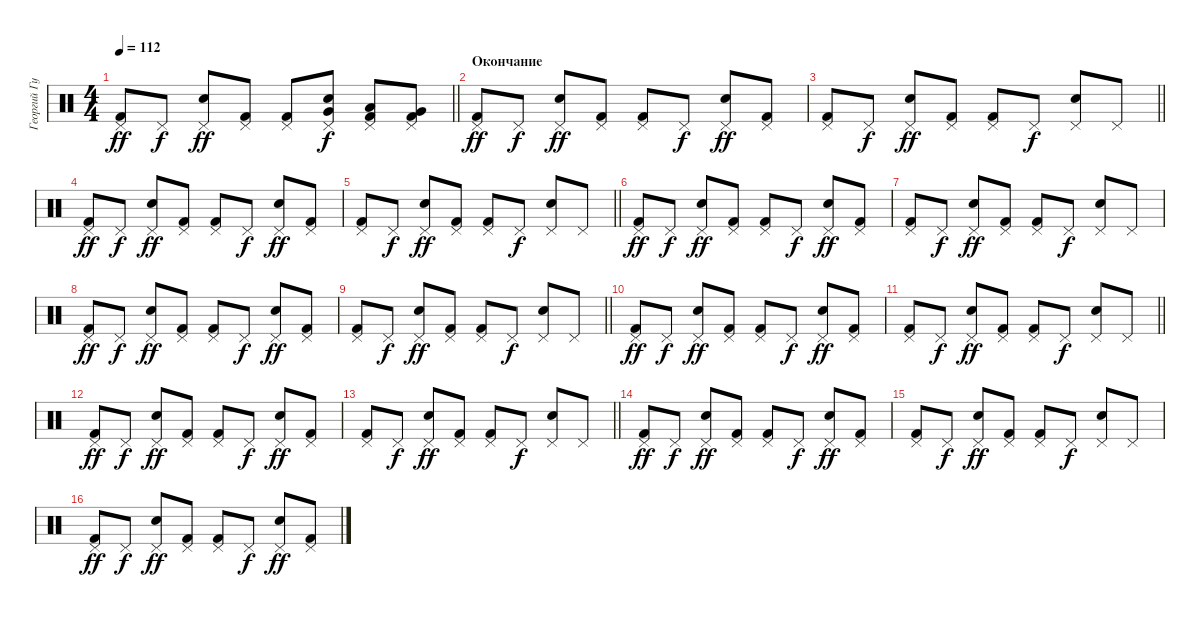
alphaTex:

\track ("Георгий Гурьянов" "Георгий Гу") {instrument percussion}
\staff {score}
\articulation defaults
\ts (4 4)
\tempo 112
\clef neutral
\barLineRight lightlight
\ks c
("Pedal Hi-Hat (hit)" "Kick (hit) 2").8{dy ff} "Pedal Hi-Hat (hit)".8{dy f} ("Pedal Hi-Hat (hit)" "Electric Snare (hit)").8{dy ff} ("Pedal Hi-Hat (hit)" "Kick (hit) 2").8 ("Pedal Hi-Hat (hit)" "Kick (hit) 2").8 ("Pedal Hi-Hat (hit)" "Electric Snare (hit)" "Very Low Tom (hit)").8{dy f} ("Pedal Hi-Hat (hit)" "Kick (hit) 2" "Low Floor Tom (hit)").8 ("Pedal Hi-Hat (hit)" "Kick (hit) 2" "Very Low Tom (hit)").8 |
\section ("" "Окончание")
("Pedal Hi-Hat (hit)" "Kick (hit) 2").8{dy ff} "Pedal Hi-Hat (hit)".8{dy f} ("Pedal Hi-Hat (hit)" "Electric Snare (hit)").8{dy ff} ("Pedal Hi-Hat (hit)" "Kick (hit) 2").8 ("Pedal Hi-Hat (hit)" "Kick (hit) 2").8 "Pedal Hi-Hat (hit)".8{dy f} ("Pedal Hi-Hat (hit)" "Electric Snare (hit)").8{dy ff} ("Pedal Hi-Hat (hit)" "Kick (hit) 2").8 |
\barLineRight lightlight
("Pedal Hi-Hat (hit)" "Kick (hit) 2").8 "Pedal Hi-Hat (hit)".8{dy f} ("Pedal Hi-Hat (hit)" "Electric Snare (hit)").8{dy ff} ("Pedal Hi-Hat (hit)" "Kick (hit) 2").8 ("Pedal Hi-Hat (hit)" "Kick (hit) 2").8 "Pedal Hi-Hat (hit)".8{dy f} ("Pedal Hi-Hat (hit)" "Electric Snare (hit)").8 "Pedal Hi-Hat (hit)".8 |
("Pedal Hi-Hat (hit)" "Kick (hit) 2").8{dy ff} "Pedal Hi-Hat (hit)".8{dy f} ("Pedal Hi-Hat (hit)" "Electric Snare (hit)").8{dy ff} ("Pedal Hi-Hat (hit)" "Kick (hit) 2").8 ("Pedal Hi-Hat (hit)" "Kick (hit) 2").8 "Pedal Hi-Hat (hit)".8{dy f} ("Pedal Hi-Hat (hit)" "Electric Snare (hit)").8{dy ff} ("Pedal Hi-Hat (hit)" "Kick (hit) 2").8 |
\barLineRight lightlight
("Pedal Hi-Hat (hit)" "Kick (hit) 2").8 "Pedal Hi-Hat (hit)".8{dy f} ("Pedal Hi-Hat (hit)" "Electric Snare (hit)").8{dy ff} ("Pedal Hi-Hat (hit)" "Kick (hit) 2").8 ("Pedal Hi-Hat (hit)" "Kick (hit) 2").8 "Pedal Hi-Hat (hit)".8{dy f} ("Pedal Hi-Hat (hit)" "Electric Snare (hit)").8 "Pedal Hi-Hat (hit)".8 |
("Pedal Hi-Hat (hit)" "Kick (hit) 2").8{dy ff} "Pedal Hi-Hat (hit)".8{dy f} ("Pedal Hi-Hat (hit)" "Electric Snare (hit)").8{dy ff} ("Pedal Hi-Hat (hit)" "Kick (hit) 2").8 ("Pedal Hi-Hat (hit)" "Kick (hit) 2").8 "Pedal Hi-Hat (hit)".8{dy f} ("Pedal Hi-Hat (hit)" "Electric Snare (hit)").8{dy ff} ("Pedal Hi-Hat (hit)" "Kick (hit) 2").8 |
("Pedal Hi-Hat (hit)" "Kick (hit) 2").8 "Pedal Hi-Hat (hit)".8{dy f} ("Pedal Hi-Hat (hit)" "Electric Snare (hit)").8{dy ff} ("Pedal Hi-Hat (hit)" "Kick (hit) 2").8 ("Pedal Hi-Hat (hit)" "Kick (hit) 2").8 "Pedal Hi-Hat (hit)".8{dy f} ("Pedal Hi-Hat (hit)" "Electric Snare (hit)").8 "Pedal Hi-Hat (hit)".8 |
("Pedal Hi-Hat (hit)" "Kick (hit) 2").8{dy ff} "Pedal Hi-Hat (hit)".8{dy f} ("Pedal Hi-Hat (hit)" "Electric Snare (hit)").8{dy ff} ("Pedal Hi-Hat (hit)" "Kick (hit) 2").8 ("Pedal Hi-Hat (hit)" "Kick (hit) 2").8 "Pedal Hi-Hat (hit)".8{dy f} ("Pedal Hi-Hat (hit)" "Electric Snare (hit)").8{dy ff} ("Pedal Hi-Hat (hit)" "Kick (hit) 2").8 |
\barLineRight lightlight
("Pedal Hi-Hat (hit)" "Kick (hit) 2").8 "Pedal Hi-Hat (hit)".8{dy f} ("Pedal Hi-Hat (hit)" "Electric Snare (hit)").8{dy ff} ("Pedal Hi-Hat (hit)" "Kick (hit) 2").8 ("Pedal Hi-Hat (hit)" "Kick (hit) 2").8 "Pedal Hi-Hat (hit)".8{dy f} ("Pedal Hi-Hat (hit)" "Electric Snare (hit)").8 "Pedal Hi-Hat (hit)".8 |
\section ("" "")
("Pedal Hi-Hat (hit)" "Kick (hit) 2").8{dy ff} "Pedal Hi-Hat (hit)".8{dy f} ("Pedal Hi-Hat (hit)" "Electric Snare (hit)").8{dy ff} ("Pedal Hi-Hat (hit)" "Kick (hit) 2").8 ("Pedal Hi-Hat (hit)" "Kick (hit) 2").8 "Pedal Hi-Hat (hit)".8{dy f} ("Pedal Hi-Hat (hit)" "Electric Snare (hit)").8{dy ff} ("Pedal Hi-Hat (hit)" "Kick (hit) 2").8 |
\barLineRight lightlight
("Pedal Hi-Hat (hit)" "Kick (hit) 2").8 "Pedal Hi-Hat (hit)".8{dy f} ("Pedal Hi-Hat (hit)" "Electric Snare (hit)").8{dy ff} ("Pedal Hi-Hat (hit)" "Kick (hit) 2").8 ("Pedal Hi-Hat (hit)" "Kick (hit) 2").8 "Pedal Hi-Hat (hit)".8{dy f} ("Pedal Hi-Hat (hit)" "Electric Snare (hit)").8 "Pedal Hi-Hat (hit)".8 |
("Pedal Hi-Hat (hit)" "Kick (hit) 2").8{dy ff} "Pedal Hi-Hat (hit)".8{dy f} ("Pedal Hi-Hat (hit)" "Electric Snare (hit)").8{dy ff} ("Pedal Hi-Hat (hit)" "Kick (hit) 2").8 ("Pedal Hi-Hat (hit)" "Kick (hit) 2").8 "Pedal Hi-Hat (hit)".8{dy f} ("Pedal Hi-Hat (hit)" "Electric Snare (hit)").8{dy ff} ("Pedal Hi-Hat (hit)" "Kick (hit) 2").8 |
\barLineRight lightlight
("Pedal Hi-Hat (hit)" "Kick (hit) 2").8 "Pedal Hi-Hat (hit)".8{dy f} ("Pedal Hi-Hat (hit)" "Electric Snare (hit)").8{dy ff} ("Pedal Hi-Hat (hit)" "Kick (hit) 2").8 ("Pedal Hi-Hat (hit)" "Kick (hit) 2").8 "Pedal Hi-Hat (hit)".8{dy f} ("Pedal Hi-Hat (hit)" "Electric Snare (hit)").8 "Pedal Hi-Hat (hit)".8 |
("Pedal Hi-Hat (hit)" "Kick (hit) 2").8{dy ff} "Pedal Hi-Hat (hit)".8{dy f} ("Pedal Hi-Hat (hit)" "Electric Snare (hit)").8{dy ff} ("Pedal Hi-Hat (hit)" "Kick (hit) 2").8 ("Pedal Hi-Hat (hit)" "Kick (hit) 2").8 "Pedal Hi-Hat (hit)".8{dy f} ("Pedal Hi-Hat (hit)" "Electric Snare (hit)").8{dy ff} ("Pedal Hi-Hat (hit)" "Kick (hit) 2").8 |
("Pedal Hi-Hat (hit)" "Kick (hit) 2").8 "Pedal Hi-Hat (hit)".8{dy f} ("Pedal Hi-Hat (hit)" "Electric Snare (hit)").8{dy ff} ("Pedal Hi-Hat (hit)" "Kick (hit) 2").8 ("Pedal Hi-Hat (hit)" "Kick (hit) 2").8 "Pedal Hi-Hat (hit)".8{dy f} ("Pedal Hi-Hat (hit)" "Electric Snare (hit)").8 "Pedal Hi-Hat (hit)".8 |
("Pedal Hi-Hat (hit)" "Kick (hit) 2").8{dy ff} "Pedal Hi-Hat (hit)".8{dy f} ("Pedal Hi-Hat (hit)" "Electric Snare (hit)").8{dy ff} ("Pedal Hi-Hat (hit)" "Kick (hit) 2").8 ("Pedal Hi-Hat (hit)" "Kick (hit) 2").8 "Pedal Hi-Hat (hit)".8{dy f} ("Pedal Hi-Hat (hit)" "Electric Snare (hit)").8{dy ff} ("Pedal Hi-Hat (hit)" "Kick (hit) 2").8
